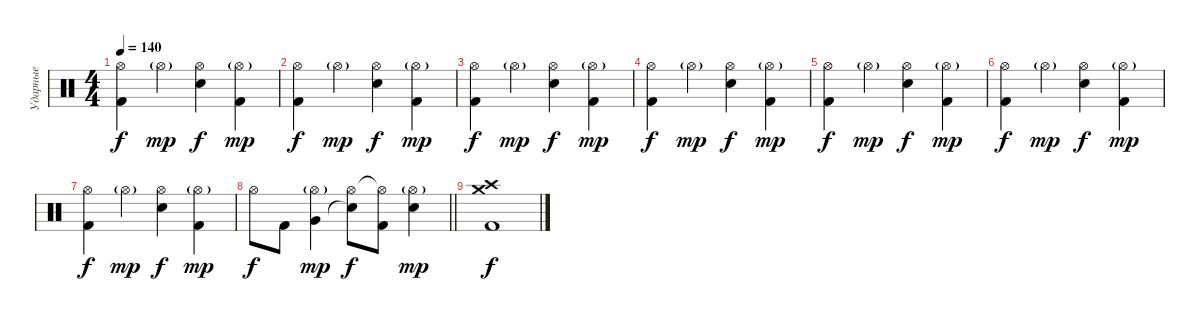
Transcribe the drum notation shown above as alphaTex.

\track ("Ударные" "Ударные") {instrument percussion}
\staff {score}
\articulation defaults
\ts (4 4)
\tempo 140
\clef neutral
\ks c
("Hi-Hat (open)" "Kick (hit) 2").4{dy f} "Hi-Hat (open)"{g}.4{dy mp} ("Hi-Hat (open)" "Electric Snare (hit)").4{dy f} ("Hi-Hat (open)"{g} "Kick (hit) 2").4{dy mp} |
("Hi-Hat (open)" "Kick (hit) 2").4{dy f} "Hi-Hat (open)"{g}.4{dy mp} ("Hi-Hat (open)" "Electric Snare (hit)").4{dy f} ("Hi-Hat (open)"{g} "Kick (hit) 2").4{dy mp} |
("Hi-Hat (open)" "Kick (hit) 2").4{dy f} "Hi-Hat (open)"{g}.4{dy mp} ("Hi-Hat (open)" "Electric Snare (hit)").4{dy f} ("Hi-Hat (open)"{g} "Kick (hit) 2").4{dy mp} |
("Hi-Hat (open)" "Kick (hit) 2").4{dy f} "Hi-Hat (open)"{g}.4{dy mp} ("Hi-Hat (open)" "Electric Snare (hit)").4{dy f} ("Hi-Hat (open)"{g} "Kick (hit) 2").4{dy mp} |
("Hi-Hat (open)" "Kick (hit) 2").4{dy f} "Hi-Hat (open)"{g}.4{dy mp} ("Hi-Hat (open)" "Electric Snare (hit)").4{dy f} ("Hi-Hat (open)"{g} "Kick (hit) 2").4{dy mp} |
("Hi-Hat (open)" "Kick (hit) 2").4{dy f} "Hi-Hat (open)"{g}.4{dy mp} ("Hi-Hat (open)" "Electric Snare (hit)").4{dy f} ("Hi-Hat (open)"{g} "Kick (hit) 2").4{dy mp} |
("Hi-Hat (open)" "Kick (hit) 2").4{dy f} "Hi-Hat (open)"{g}.4{dy mp} ("Hi-Hat (open)" "Electric Snare (hit)").4{dy f} ("Hi-Hat (open)"{g} "Kick (hit) 2").4{dy mp} |
\barLineRight lightlight "Hi-Hat (open)".8{dy f} "Kick (hit) 2".8
("Hi-Hat (open)"{g} "Very Low Tom (hit)").4{dy mp} ("Hi-Hat (open)" "Snare (hit)"{t}).8{dy f} ("Hi-Hat (open)"{t} "Kick (hit) 2").8 ("Hi-Hat (open)"{g} "Electric Snare (hit)").4{dy mp} |
("Crash high (hit)" "Crash medium (hit)" "Kick (hit) 2").1{dy f}
